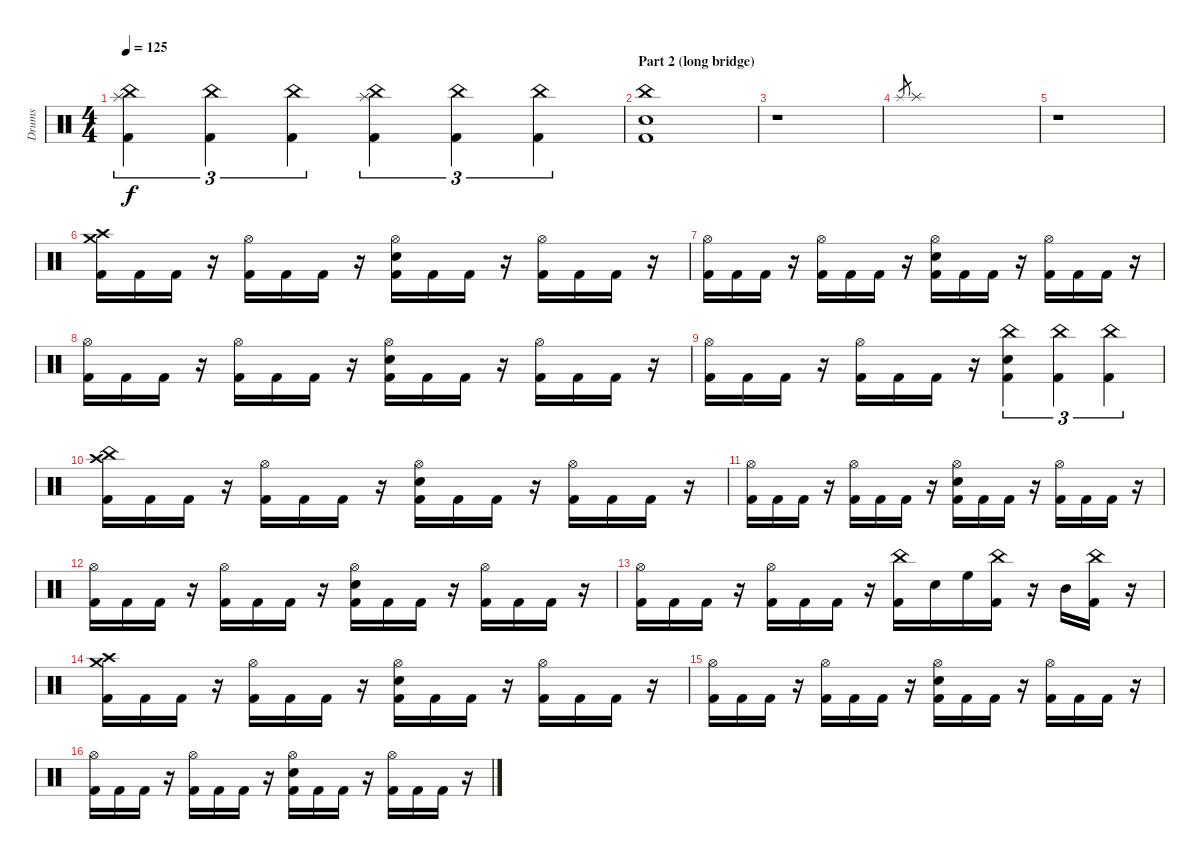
\track ("Drums" "Drums") {instrument percussion}
\staff {score}
\articulation defaults
\ts (4 4)
\tempo 125
\clef neutral
\ks c
("China (hit)" "Splash (hit)" "Kick (hit) 2").4{tu (3 2) dy f} ("China (hit)" "Kick (hit) 2").4{tu (3 2)} ("China (hit)" "Kick (hit) 2").4{tu (3 2)} ("China (hit)" "Splash (hit)" "Kick (hit) 2").4{tu (3 2)} ("China (hit)" "Kick (hit) 2").4{tu (3 2)} ("China (hit)" "Kick (hit) 2").4{tu (3 2)} |
\section ("" "Part 2 (long bridge)")
("China (hit)" "Electric Snare (hit)" "Kick (hit) 2").1 |
r.1 |
"Splash (hit)".8{gr} "Splash (hit)".1 |
r.1 |
("Crash medium (hit)" "Crash high (hit)" "Kick (hit) 2").16 "Kick (hit) 2".16 "Kick (hit) 2".16 r.16 ("Hi-Hat (open)" "Kick (hit) 2").16 "Kick (hit) 2".16 "Kick (hit) 2".16 r.16 ("Hi-Hat (open)" "Electric Snare (hit)" "Kick (hit) 2").16 "Kick (hit) 2".16 "Kick (hit) 2".16 r.16 ("Hi-Hat (open)" "Kick (hit) 2").16 "Kick (hit) 2".16 "Kick (hit) 2".16 r.16 |
("Hi-Hat (open)" "Kick (hit) 2").16 "Kick (hit) 2".16 "Kick (hit) 2".16 r.16 ("Hi-Hat (open)" "Kick (hit) 2").16 "Kick (hit) 2".16 "Kick (hit) 2".16 r.16 ("Hi-Hat (open)" "Electric Snare (hit)" "Kick (hit) 2").16 "Kick (hit) 2".16 "Kick (hit) 2".16 r.16 ("Hi-Hat (open)" "Kick (hit) 2").16 "Kick (hit) 2".16 "Kick (hit) 2".16 r.16 |
("Hi-Hat (open)" "Kick (hit) 2").16 "Kick (hit) 2".16 "Kick (hit) 2".16 r.16 ("Hi-Hat (open)" "Kick (hit) 2").16 "Kick (hit) 2".16 "Kick (hit) 2".16 r.16 ("Hi-Hat (open)" "Electric Snare (hit)" "Kick (hit) 2").16 "Kick (hit) 2".16 "Kick (hit) 2".16 r.16 ("Hi-Hat (open)" "Kick (hit) 2").16 "Kick (hit) 2".16 "Kick (hit) 2".16 r.16 |
("Hi-Hat (open)" "Kick (hit) 2").16 "Kick (hit) 2".16 "Kick (hit) 2".16 r.16 ("Hi-Hat (open)" "Kick (hit) 2").16 "Kick (hit) 2".16 "Kick (hit) 2".16 r.16 ("China (hit)" "Electric Snare (hit)" "Kick (hit) 2").4{tu (3 2)} ("China (hit)" "Kick (hit) 2").4{tu (3 2)} ("China (hit)" "Kick (hit) 2").4{tu (3 2)} |
("China (hit)" "Crash high (hit)" "Kick (hit) 2").16 "Kick (hit) 2".16 "Kick (hit) 2".16 r.16 ("Hi-Hat (open)" "Kick (hit) 2").16 "Kick (hit) 2".16 "Kick (hit) 2".16 r.16 ("Hi-Hat (open)" "Electric Snare (hit)" "Kick (hit) 2").16 "Kick (hit) 2".16 "Kick (hit) 2".16 r.16 ("Hi-Hat (open)" "Kick (hit) 2").16 "Kick (hit) 2".16 "Kick (hit) 2".16 r.16 |
("Hi-Hat (open)" "Kick (hit) 2").16 "Kick (hit) 2".16 "Kick (hit) 2".16 r.16 ("Hi-Hat (open)" "Kick (hit) 2").16 "Kick (hit) 2".16 "Kick (hit) 2".16 r.16 ("Hi-Hat (open)" "Electric Snare (hit)" "Kick (hit) 2").16 "Kick (hit) 2".16 "Kick (hit) 2".16 r.16 ("Hi-Hat (open)" "Kick (hit) 2").16 "Kick (hit) 2".16 "Kick (hit) 2".16 r.16 |
("Hi-Hat (open)" "Kick (hit) 2").16 "Kick (hit) 2".16 "Kick (hit) 2".16 r.16 ("Hi-Hat (open)" "Kick (hit) 2").16 "Kick (hit) 2".16 "Kick (hit) 2".16 r.16 ("Hi-Hat (open)" "Electric Snare (hit)" "Kick (hit) 2").16 "Kick (hit) 2".16 "Kick (hit) 2".16 r.16 ("Hi-Hat (open)" "Kick (hit) 2").16 "Kick (hit) 2".16 "Kick (hit) 2".16 r.16 |
("Hi-Hat (open)" "Kick (hit) 2").16 "Kick (hit) 2".16 "Kick (hit) 2".16 r.16 ("Hi-Hat (open)" "Kick (hit) 2").16 "Kick (hit) 2".16 "Kick (hit) 2".16 r.16 ("China (hit)" "Kick (hit) 2").16 "Electric Snare (hit)".16 "High Floor Tom (hit)".16 ("China (hit)" "Kick (hit) 2").16 r.16 "Mid Tom (hit)".16 ("China (hit)" "Kick (hit) 2").16 r.16 |
\section ("" "")
("Crash medium (hit)" "Crash high (hit)" "Kick (hit) 2").16 "Kick (hit) 2".16 "Kick (hit) 2".16 r.16 ("Hi-Hat (open)" "Kick (hit) 2").16 "Kick (hit) 2".16 "Kick (hit) 2".16 r.16 ("Hi-Hat (open)" "Electric Snare (hit)" "Kick (hit) 2").16 "Kick (hit) 2".16 "Kick (hit) 2".16 r.16 ("Hi-Hat (open)" "Kick (hit) 2").16 "Kick (hit) 2".16 "Kick (hit) 2".16 r.16 |
("Hi-Hat (open)" "Kick (hit) 2").16 "Kick (hit) 2".16 "Kick (hit) 2".16 r.16 ("Hi-Hat (open)" "Kick (hit) 2").16 "Kick (hit) 2".16 "Kick (hit) 2".16 r.16 ("Hi-Hat (open)" "Electric Snare (hit)" "Kick (hit) 2").16 "Kick (hit) 2".16 "Kick (hit) 2".16 r.16 ("Hi-Hat (open)" "Kick (hit) 2").16 "Kick (hit) 2".16 "Kick (hit) 2".16 r.16 |
("Hi-Hat (open)" "Kick (hit) 2").16 "Kick (hit) 2".16 "Kick (hit) 2".16 r.16 ("Hi-Hat (open)" "Kick (hit) 2").16 "Kick (hit) 2".16 "Kick (hit) 2".16 r.16 ("Hi-Hat (open)" "Electric Snare (hit)" "Kick (hit) 2").16 "Kick (hit) 2".16 "Kick (hit) 2".16 r.16 ("Hi-Hat (open)" "Kick (hit) 2").16 "Kick (hit) 2".16 "Kick (hit) 2".16 r.16
